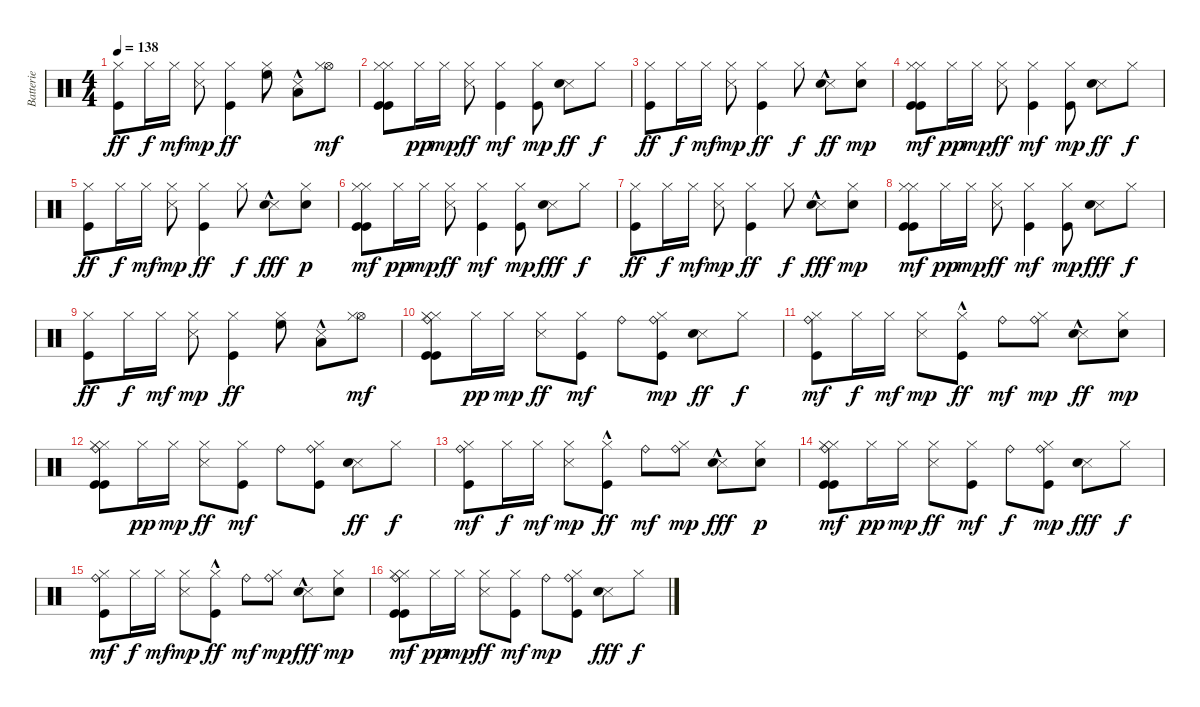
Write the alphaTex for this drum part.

\track ("Batterie" "Batterie") {instrument percussion}
\staff {score}
\articulation defaults
\ts (4 4)
\tempo 138
\clef neutral
\ks c
("Kick (hit)" "Hi-Hat (closed)").8{dy ff} "Hi-Hat (closed)".16{dy f} "Hi-Hat (closed)".16{dy mf} ("Snare (side stick) 3" "Hi-Hat (closed)").8{dy mp} ("Kick (hit)" "Hi-Hat (closed)").4{dy ff} ("Hi-Hat (closed)" "High Floor Tom (hit)").8 ("Snare (side stick) 3"{hac} "Low Tom (hit)").8 ("Hi-Hat (open)" "Hi-Hat (closed)").8{dy mf} |
("Kick (hit)" "Kick (hit)" "Hi-Hat (closed)" "Hi-Hat (closed)").8 "Hi-Hat (closed)".16{dy pp} "Hi-Hat (closed)".16{dy mp} ("Snare (side stick) 3" "Hi-Hat (closed)").8{dy ff} ("Kick (hit)" "Hi-Hat (closed)").4{dy mf} ("Kick (hit)" "Hi-Hat (closed)").8{dy mp} ("Snare (side stick) 3" "Snare (hit) 2").8{dy ff} "Hi-Hat (closed)".8{dy f} |
("Kick (hit)" "Hi-Hat (closed)").8{dy ff} "Hi-Hat (closed)".16{dy f} "Hi-Hat (closed)".16{dy mf} ("Snare (side stick) 3" "Hi-Hat (closed)").8{dy mp} ("Kick (hit)" "Hi-Hat (closed)").4{dy ff} "Hi-Hat (closed)".8{dy f} ("Snare (side stick) 3"{hac} "Snare (hit) 2").8{dy ff} ("Hi-Hat (closed)" "Snare (hit) 2").8{dy mp} |
("Kick (hit)" "Kick (hit)" "Hi-Hat (closed)" "Hi-Hat (closed)").8{dy mf} "Hi-Hat (closed)".16{dy pp} "Hi-Hat (closed)".16{dy mp} ("Snare (side stick) 3" "Hi-Hat (closed)").8{dy ff} ("Kick (hit)" "Hi-Hat (closed)").4{dy mf} ("Kick (hit)" "Hi-Hat (closed)").8{dy mp} ("Snare (side stick) 3" "Snare (hit) 2").8{dy ff} "Hi-Hat (closed)".8{dy f} |
("Kick (hit)" "Hi-Hat (closed)").8{dy ff} "Hi-Hat (closed)".16{dy f} "Hi-Hat (closed)".16{dy mf} ("Snare (side stick) 3" "Hi-Hat (closed)").8{dy mp} ("Kick (hit)" "Hi-Hat (closed)").4{dy ff} "Hi-Hat (closed)".8{dy f} ("Snare (side stick) 3"{hac} "Snare (hit) 2").8{dy fff} ("Hi-Hat (closed)" "Snare (hit) 2").8{dy p} |
("Kick (hit)" "Kick (hit)" "Hi-Hat (closed)" "Hi-Hat (closed)").8{dy mf} "Hi-Hat (closed)".16{dy pp} "Hi-Hat (closed)".16{dy mp} ("Snare (side stick) 3" "Hi-Hat (closed)").8{dy ff} ("Kick (hit)" "Hi-Hat (closed)").4{dy mf} ("Kick (hit)" "Hi-Hat (closed)").8{dy mp} ("Snare (side stick) 3" "Snare (hit) 2").8{dy fff} "Hi-Hat (closed)".8{dy f} |
("Kick (hit)" "Hi-Hat (closed)").8{dy ff} "Hi-Hat (closed)".16{dy f} "Hi-Hat (closed)".16{dy mf} ("Snare (side stick) 3" "Hi-Hat (closed)").8{dy mp} ("Kick (hit)" "Hi-Hat (closed)").4{dy ff} "Hi-Hat (closed)".8{dy f} ("Snare (side stick) 3"{hac} "Snare (hit) 2").8{dy fff} ("Hi-Hat (closed)" "Snare (hit) 2").8{dy mp} |
("Kick (hit)" "Kick (hit)" "Hi-Hat (closed)" "Hi-Hat (closed)").8{dy mf} "Hi-Hat (closed)".16{dy pp} "Hi-Hat (closed)".16{dy mp} ("Snare (side stick) 3" "Hi-Hat (closed)").8{dy ff} ("Kick (hit)" "Hi-Hat (closed)").4{dy mf} ("Kick (hit)" "Hi-Hat (closed)").8{dy mp} ("Snare (side stick) 3" "Snare (hit) 2").8{dy fff} "Hi-Hat (closed)".8{dy f} |
("Kick (hit)" "Hi-Hat (closed)").8{dy ff} "Hi-Hat (closed)".16{dy f} "Hi-Hat (closed)".16{dy mf} ("Snare (side stick) 3" "Hi-Hat (closed)").8{dy mp} ("Kick (hit)" "Hi-Hat (closed)").4{dy ff} ("Hi-Hat (closed)" "High Floor Tom (hit)").8 ("Snare (side stick) 3"{hac} "Low Tom (hit)").8 ("Hi-Hat (open)" "Hi-Hat (closed)").8{dy mf} |
("Kick (hit)" "Kick (hit)" "Hi-Hat (closed)" "Hi-Hat (closed)" "Ride (bell)").8 "Hi-Hat (closed)".16{dy pp} "Hi-Hat (closed)".16{dy mp} ("Snare (side stick) 3" "Hi-Hat (closed)").8{dy ff} ("Kick (hit)" "Hi-Hat (closed)").8{dy mf} "Ride (bell)".8 ("Kick (hit)" "Hi-Hat (closed)" "Ride (bell)").8{dy mp} ("Snare (side stick) 3" "Snare (hit) 2").8{dy ff} "Hi-Hat (closed)".8{dy f} |
("Kick (hit)" "Hi-Hat (closed)" "Ride (bell)").8{dy mf} "Hi-Hat (closed)".16{dy f} "Hi-Hat (closed)".16{dy mf} ("Snare (side stick) 3" "Hi-Hat (closed)").8{dy mp} ("Kick (hit)"{hac} "Hi-Hat (closed)").8{dy ff} "Ride (bell)".8{dy mf} ("Hi-Hat (closed)" "Ride (bell)").8{dy mp} ("Snare (side stick) 3"{hac} "Snare (hit) 2").8{dy ff} ("Hi-Hat (closed)" "Snare (hit) 2").8{dy mp} |
("Kick (hit)" "Kick (hit)" "Hi-Hat (closed)" "Hi-Hat (closed)" "Ride (bell)").8 "Hi-Hat (closed)".16{dy pp} "Hi-Hat (closed)".16{dy mp} ("Snare (side stick) 3" "Hi-Hat (closed)").8{dy ff} ("Kick (hit)" "Hi-Hat (closed)").8{dy mf} "Ride (bell)".8 ("Kick (hit)" "Hi-Hat (closed)" "Ride (bell)").8 ("Snare (side stick) 3" "Snare (hit) 2").8{dy ff} "Hi-Hat (closed)".8{dy f} |
("Kick (hit)" "Hi-Hat (closed)" "Ride (bell)").8{dy mf} "Hi-Hat (closed)".16{dy f} "Hi-Hat (closed)".16{dy mf} ("Snare (side stick) 3" "Hi-Hat (closed)").8{dy mp} ("Kick (hit)"{hac} "Hi-Hat (closed)").8{dy ff} "Ride (bell)".8{dy mf} ("Hi-Hat (closed)" "Ride (bell)").8{dy mp} ("Snare (side stick) 3"{hac} "Snare (hit) 2").8{dy fff} ("Hi-Hat (closed)" "Snare (hit) 2").8{dy p} |
("Kick (hit)" "Kick (hit)" "Hi-Hat (closed)" "Hi-Hat (closed)" "Ride (bell)").8{dy mf} "Hi-Hat (closed)".16{dy pp} "Hi-Hat (closed)".16{dy mp} ("Snare (side stick) 3" "Hi-Hat (closed)").8{dy ff} ("Kick (hit)" "Hi-Hat (closed)").8{dy mf} "Ride (bell)".8{dy f} ("Kick (hit)" "Hi-Hat (closed)" "Ride (bell)").8{dy mp} ("Snare (side stick) 3" "Snare (hit) 2").8{dy fff} "Hi-Hat (closed)".8{dy f} |
("Kick (hit)" "Hi-Hat (closed)" "Ride (bell)").8{dy mf} "Hi-Hat (closed)".16{dy f} "Hi-Hat (closed)".16{dy mf} ("Snare (side stick) 3" "Hi-Hat (closed)").8{dy mp} ("Kick (hit)"{hac} "Hi-Hat (closed)").8{dy ff} "Ride (bell)".8{dy mf} ("Hi-Hat (closed)" "Ride (bell)").8{dy mp} ("Snare (side stick) 3"{hac} "Snare (hit) 2").8{dy fff} ("Hi-Hat (closed)" "Snare (hit) 2").8{dy mp} |
("Kick (hit)" "Kick (hit)" "Hi-Hat (closed)" "Hi-Hat (closed)" "Ride (bell)").8{dy mf} "Hi-Hat (closed)".16{dy pp} "Hi-Hat (closed)".16{dy mp} ("Snare (side stick) 3" "Hi-Hat (closed)").8{dy ff} ("Kick (hit)" "Hi-Hat (closed)").8{dy mf} "Ride (bell)".8{dy mp} ("Kick (hit)" "Hi-Hat (closed)" "Ride (bell)").8 ("Snare (side stick) 3" "Snare (hit) 2").8{dy fff} "Hi-Hat (closed)".8{dy f}
